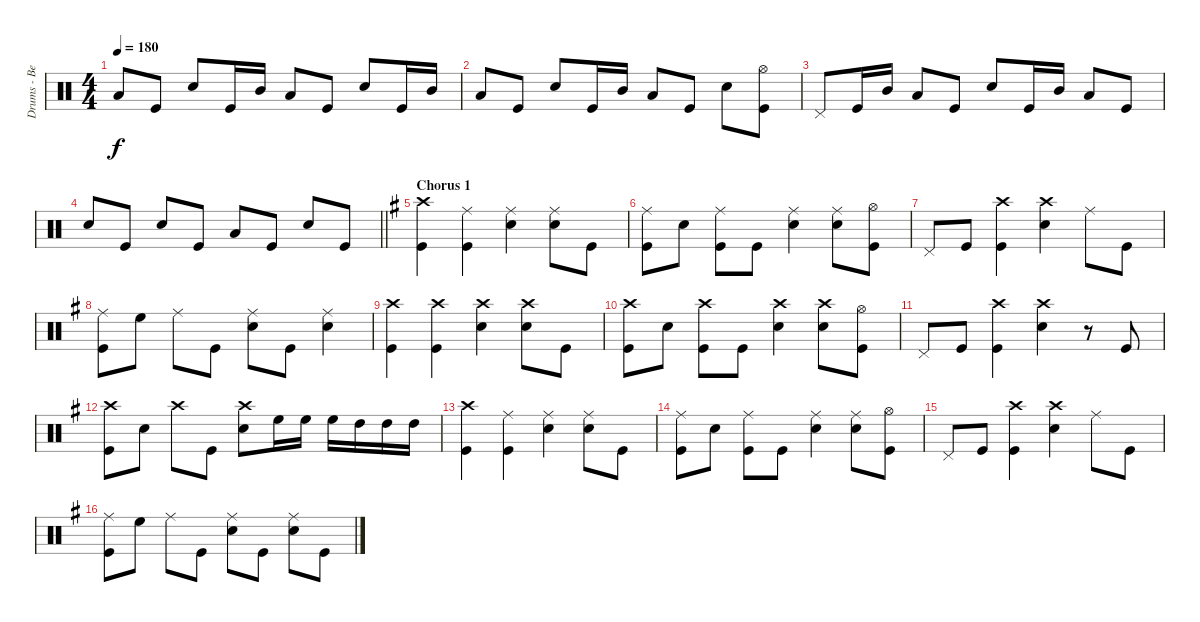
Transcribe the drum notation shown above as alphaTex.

\track ("Drums - Ben Johnston" "Drums - Be") {instrument percussion}
\staff {score}
\articulation defaults
\ts (4 4)
\tempo 180
\clef neutral
\ks c "Low Tom (hit)".8{dy f} "Kick (hit)".8 "Snare (hit) 2".8 "Kick (hit)".16 "Mid Tom (hit)".16 "Low Tom (hit)".8 "Kick (hit)".8 "Snare (hit) 2".8 "Kick (hit)".16 "Mid Tom (hit)".16
|
"Low Tom (hit)".8 "Kick (hit)".8 "Snare (hit) 2".8 "Kick (hit)".16 "Mid Tom (hit)".16 "Low Tom (hit)".8 "Kick (hit)".8 "Snare (hit) 2".8 ("Hi-Hat (open)" "Kick (hit)").8 |
"Pedal Hi-Hat (hit)".8 "Kick (hit)".16 "Mid Tom (hit)".16 "Low Tom (hit)".8 "Kick (hit)".8 "Snare (hit) 2".8 "Kick (hit)".16 "Mid Tom (hit)".16 "Low Tom (hit)".8 "Kick (hit)".8 |
\barLineRight lightlight "Snare (hit) 2".8 "Kick (hit)".8 "Snare (hit) 2".8 "Kick (hit)".8 "Low Tom (hit)".8 "Kick (hit)".8 "Snare (hit) 2".8 "Kick (hit)".8
|
\section ("" "Chorus 1")
\ks eminor
("Crash high (hit)" "Kick (hit)").4 ("Ride (middle)" "Kick (hit)").4 ("Ride (middle)" "Snare (hit) 2").4 ("Ride (middle)" "Snare (hit) 2").8 "Kick (hit)".8 |
("Ride (middle)" "Kick (hit)").8 "Snare (hit) 2".8 ("Ride (middle)" "Kick (hit)").8 "Kick (hit)".8 ("Ride (middle)" "Snare (hit) 2").4 ("Ride (middle)" "Snare (hit) 2").8 ("Hi-Hat (open)" "Kick (hit)").8 |
"Pedal Hi-Hat (hit)".8 "Kick (hit)".8 ("Crash high (hit)" "Kick (hit)").4 ("Crash high (hit)" "Snare (hit) 2").4 "Ride (middle)".8 "Kick (hit)".8 |
("Ride (middle)" "Kick (hit)").8 "High Floor Tom (hit)".8 "Ride (middle)".8 "Kick (hit)".8 ("Ride (middle)" "Snare (hit) 2").8 "Kick (hit)".8 ("Ride (middle)" "Snare (hit) 2").4 |
("Crash high (hit)" "Kick (hit)").4 ("Crash high (hit)" "Kick (hit)").4 ("Crash high (hit)" "Snare (hit) 2").4 ("Crash high (hit)" "Snare (hit) 2").8 "Kick (hit)".8 |
("Crash high (hit)" "Kick (hit)").8 "Snare (hit) 2".8 ("Crash high (hit)" "Kick (hit)").8 "Kick (hit)".8 ("Crash high (hit)" "Snare (hit) 2").4 ("Crash high (hit)" "Snare (hit) 2").8 ("Hi-Hat (open)" "Kick (hit)").8 |
"Pedal Hi-Hat (hit)".8 "Kick (hit)".8 ("Crash high (hit)" "Kick (hit)").4 ("Crash high (hit)" "Snare (hit) 2").4 r.8 "Kick (hit)".8 |
("Crash high (hit)" "Kick (hit)").8 "Snare (hit) 2".8 "Crash high (hit)".8 "Kick (hit)".8 ("Crash high (hit)" "Snare (hit) 2").8 "High Floor Tom (hit)".16 "High Floor Tom (hit)".16 "High Floor Tom (hit)".16 "High Tom (hit)".16 "High Tom (hit)".16 "High Tom (hit)".16 |
("Crash high (hit)" "Kick (hit)").4 ("Ride (middle)" "Kick (hit)").4 ("Ride (middle)" "Snare (hit) 2").4 ("Ride (middle)" "Snare (hit) 2").8 "Kick (hit)".8 |
("Ride (middle)" "Kick (hit)").8 "Snare (hit) 2".8 ("Ride (middle)" "Kick (hit)").8 "Kick (hit)".8 ("Ride (middle)" "Snare (hit) 2").4 ("Ride (middle)" "Snare (hit) 2").8 ("Hi-Hat (open)" "Kick (hit)").8 |
"Pedal Hi-Hat (hit)".8 "Kick (hit)".8 ("Crash high (hit)" "Kick (hit)").4 ("Crash high (hit)" "Snare (hit) 2").4 "Ride (middle)".8 "Kick (hit)".8 |
("Ride (middle)" "Kick (hit)").8 "High Floor Tom (hit)".8 "Ride (middle)".8 "Kick (hit)".8 ("Ride (middle)" "Snare (hit) 2").8 "Kick (hit)".8 ("Ride (middle)" "Snare (hit) 2").8 "Kick (hit)".8
